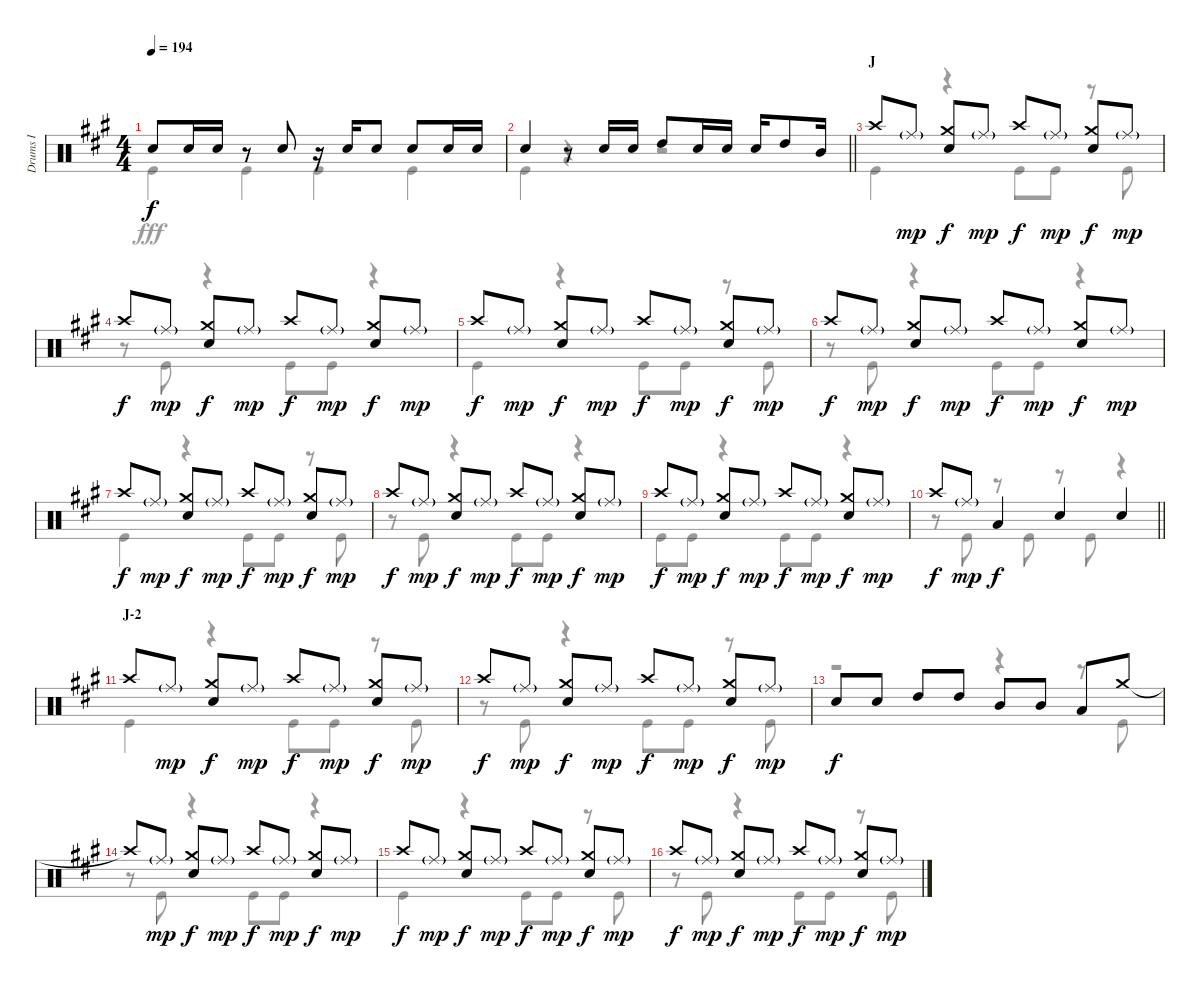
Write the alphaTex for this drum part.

\track ("Drums I" "Drums I") {instrument percussion}
\staff {score}
\articulation defaults
\voice
\ts (4 4)
\tempo 194
\clef neutral
\ks a "Snare (hit) 2".8{dy f} "Snare (hit) 2".16 "Snare (hit) 2".16
r.8 "Snare (hit) 2".8 r.16 "Snare (hit) 2".16 "Snare (hit) 2".8 "Snare (hit) 2".8 "Snare (hit) 2".16 "Snare (hit) 2".16 |
\barLineRight lightlight "Snare (hit) 2".4
r.8 "Snare (hit) 2".16 "Snare (hit) 2".16 "High Tom (hit)".8 "Snare (hit) 2".16 "Snare (hit) 2".16 "Snare (hit) 2".16 "High Tom (hit)".8 "Mid Tom (hit)".16 |
\section ("" "J")
"Crash high (hit)".8 "Ride (middle)"{g}.8{dy mp} ("Crash medium (hit)" "Snare (hit) 2").8{dy f} "Ride (middle)"{g}.8{dy mp} "Crash high (hit)".8{dy f} "Ride (middle)"{g}.8{dy mp} ("Crash medium (hit)" "Snare (hit) 2").8{dy f} "Ride (middle)"{g}.8{dy mp} |
"Crash high (hit)".8{dy f} "Ride (middle)"{g}.8{dy mp} ("Crash medium (hit)" "Snare (hit) 2").8{dy f} "Ride (middle)"{g}.8{dy mp} "Crash high (hit)".8{dy f} "Ride (middle)"{g}.8{dy mp} ("Crash medium (hit)" "Snare (hit) 2").8{dy f} "Ride (middle)"{g}.8{dy mp} |
"Crash high (hit)".8{dy f} "Ride (middle)"{g}.8{dy mp} ("Crash medium (hit)" "Snare (hit) 2").8{dy f} "Ride (middle)"{g}.8{dy mp} "Crash high (hit)".8{dy f} "Ride (middle)"{g}.8{dy mp} ("Crash medium (hit)" "Snare (hit) 2").8{dy f} "Ride (middle)"{g}.8{dy mp} |
"Crash high (hit)".8{dy f} "Ride (middle)"{g}.8{dy mp} ("Crash medium (hit)" "Snare (hit) 2").8{dy f} "Ride (middle)"{g}.8{dy mp} "Crash high (hit)".8{dy f} "Ride (middle)"{g}.8{dy mp} ("Crash medium (hit)" "Snare (hit) 2").8{dy f} "Ride (middle)"{g}.8{dy mp} |
"Crash high (hit)".8{dy f} "Ride (middle)"{g}.8{dy mp} ("Crash medium (hit)" "Snare (hit) 2").8{dy f} "Ride (middle)"{g}.8{dy mp} "Crash high (hit)".8{dy f} "Ride (middle)"{g}.8{dy mp} ("Crash medium (hit)" "Snare (hit) 2").8{dy f} "Ride (middle)"{g}.8{dy mp} |
"Crash high (hit)".8{dy f} "Ride (middle)"{g}.8{dy mp} ("Crash medium (hit)" "Snare (hit) 2").8{dy f} "Ride (middle)"{g}.8{dy mp} "Crash high (hit)".8{dy f} "Ride (middle)"{g}.8{dy mp} ("Crash medium (hit)" "Snare (hit) 2").8{dy f} "Ride (middle)"{g}.8{dy mp} |
"Crash high (hit)".8{dy f} "Ride (middle)"{g}.8{dy mp} ("Crash medium (hit)" "Snare (hit) 2").8{dy f} "Ride (middle)"{g}.8{dy mp} "Crash high (hit)".8{dy f} "Ride (middle)"{g}.8{dy mp} ("Crash medium (hit)" "Snare (hit) 2").8{dy f} "Ride (middle)"{g}.8{dy mp} |
\barLineRight lightlight "Crash high (hit)".8{dy f} "Ride (middle)"{g}.8{dy mp} "Low Tom (hit)".4{dy f} "Snare (hit) 2".4 "Snare (hit) 2".4
|
\section ("" "J-2")
"Crash high (hit)".8 "Ride (middle)"{g}.8{dy mp} ("Crash medium (hit)" "Snare (hit) 2").8{dy f} "Ride (middle)"{g}.8{dy mp} "Crash high (hit)".8{dy f} "Ride (middle)"{g}.8{dy mp} ("Crash medium (hit)" "Snare (hit) 2").8{dy f} "Ride (middle)"{g}.8{dy mp} |
"Crash high (hit)".8{dy f} "Ride (middle)"{g}.8{dy mp} ("Crash medium (hit)" "Snare (hit) 2").8{dy f} "Ride (middle)"{g}.8{dy mp} "Crash high (hit)".8{dy f} "Ride (middle)"{g}.8{dy mp} ("Crash medium (hit)" "Snare (hit) 2").8{dy f} "Ride (middle)"{g}.8{dy mp} |
"Snare (hit) 2".8{dy f} "Snare (hit) 2".8 "High Tom (hit)".8 "High Tom (hit)".8 "Mid Tom (hit)".8 "Mid Tom (hit)".8 "Low Tom (hit)".8 "Crash medium (hit)".8 |
"Crash high (hit)"{t}.8 "Ride (middle)"{g}.8{dy mp} ("Crash medium (hit)" "Snare (hit) 2").8{dy f} "Ride (middle)"{g}.8{dy mp} "Crash high (hit)".8{dy f} "Ride (middle)"{g}.8{dy mp} ("Crash medium (hit)" "Snare (hit) 2").8{dy f} "Ride (middle)"{g}.8{dy mp} |
"Crash high (hit)".8{dy f} "Ride (middle)"{g}.8{dy mp} ("Crash medium (hit)" "Snare (hit) 2").8{dy f} "Ride (middle)"{g}.8{dy mp} "Crash high (hit)".8{dy f} "Ride (middle)"{g}.8{dy mp} ("Crash medium (hit)" "Snare (hit) 2").8{dy f} "Ride (middle)"{g}.8{dy mp} |
"Crash high (hit)".8{dy f} "Ride (middle)"{g}.8{dy mp} ("Crash medium (hit)" "Snare (hit) 2").8{dy f} "Ride (middle)"{g}.8{dy mp} "Crash high (hit)".8{dy f} "Ride (middle)"{g}.8{dy mp} ("Crash medium (hit)" "Snare (hit) 2").8{dy f} "Ride (middle)"{g}.8{dy mp}
\voice
\clef neutral
\ottava regular
\simile none
\ks a "Kick (hit)".4{dy fff} "Kick (hit)".4 "Kick (hit)".4 "Kick (hit)".4
|
\barLineRight lightlight "Kick (hit)".4
r.4 r.2 |
"Kick (hit)".4 r.4 "Kick (hit)".8 "Kick (hit)".8 r.8 "Kick (hit)".8 |
r.8 "Kick (hit)".8 r.4 "Kick (hit)".8 "Kick (hit)".8 r.4 |
"Kick (hit)".4 r.4 "Kick (hit)".8 "Kick (hit)".8 r.8 "Kick (hit)".8 |
r.8 "Kick (hit)".8 r.4 "Kick (hit)".8 "Kick (hit)".8 r.4 |
"Kick (hit)".4 r.4 "Kick (hit)".8 "Kick (hit)".8 r.8 "Kick (hit)".8 |
r.8 "Kick (hit)".8 r.4 "Kick (hit)".8 "Kick (hit)".8 r.4 |
"Kick (hit)".8 "Kick (hit)".8 r.4 "Kick (hit)".8 "Kick (hit)".8 r.4 |
\barLineRight lightlight
r.8 "Kick (hit)".8 r.8 "Kick (hit)".8 r.8 "Kick (hit)".8 r.4 |
"Kick (hit)".4 r.4 "Kick (hit)".8 "Kick (hit)".8 r.8 "Kick (hit)".8 |
r.8 "Kick (hit)".8 r.4 "Kick (hit)".8 "Kick (hit)".8 r.8 "Kick (hit)".8 |
r.2 r.4 r.8 "Kick (hit)".8 |
r.8 "Kick (hit)".8 r.4 "Kick (hit)".8 "Kick (hit)".8 r.4 |
"Kick (hit)".4 r.4 "Kick (hit)".8 "Kick (hit)".8 r.8 "Kick (hit)".8 |
r.8 "Kick (hit)".8 r.4 "Kick (hit)".8 "Kick (hit)".8 r.8 "Kick (hit)".8
